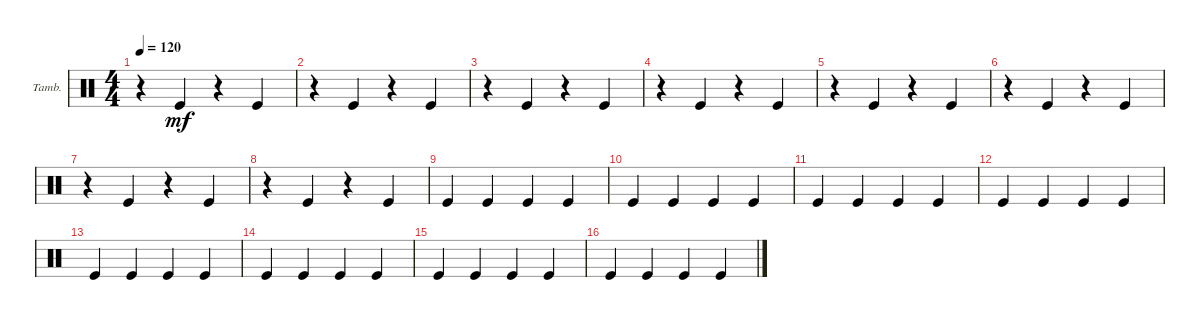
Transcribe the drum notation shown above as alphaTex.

\defaultSystemsLayout 4
\bracketExtendMode groupsimilarinstruments
\firstSystemTrackNameOrientation horizontal
\otherSystemsTrackNameOrientation horizontal
\track ("Tambourine" "Tamb.") {instrument percussion}
\staff {score}
\articulation defaults
\ts (4 4)
\tempo 120
\clef neutral
\ks c
r.4{dy mf} "Kick (hit)".4 r.4 "Kick (hit)".4 |
r.4 "Kick (hit)".4 r.4 "Kick (hit)".4 |
r.4 "Kick (hit)".4 r.4 "Kick (hit)".4 |
r.4 "Kick (hit)".4 r.4 "Kick (hit)".4 |
r.4 "Kick (hit)".4 r.4 "Kick (hit)".4 |
r.4 "Kick (hit)".4 r.4 "Kick (hit)".4 |
r.4 "Kick (hit)".4 r.4 "Kick (hit)".4 |
r.4 "Kick (hit)".4 r.4 "Kick (hit)".4 |
"Kick (hit)".4 "Kick (hit)".4 "Kick (hit)".4 "Kick (hit)".4 |
"Kick (hit)".4 "Kick (hit)".4 "Kick (hit)".4 "Kick (hit)".4 |
"Kick (hit)".4 "Kick (hit)".4 "Kick (hit)".4 "Kick (hit)".4 |
"Kick (hit)".4 "Kick (hit)".4 "Kick (hit)".4 "Kick (hit)".4 |
"Kick (hit)".4 "Kick (hit)".4 "Kick (hit)".4 "Kick (hit)".4 |
"Kick (hit)".4 "Kick (hit)".4 "Kick (hit)".4 "Kick (hit)".4 |
"Kick (hit)".4 "Kick (hit)".4 "Kick (hit)".4 "Kick (hit)".4 |
"Kick (hit)".4 "Kick (hit)".4 "Kick (hit)".4 "Kick (hit)".4
